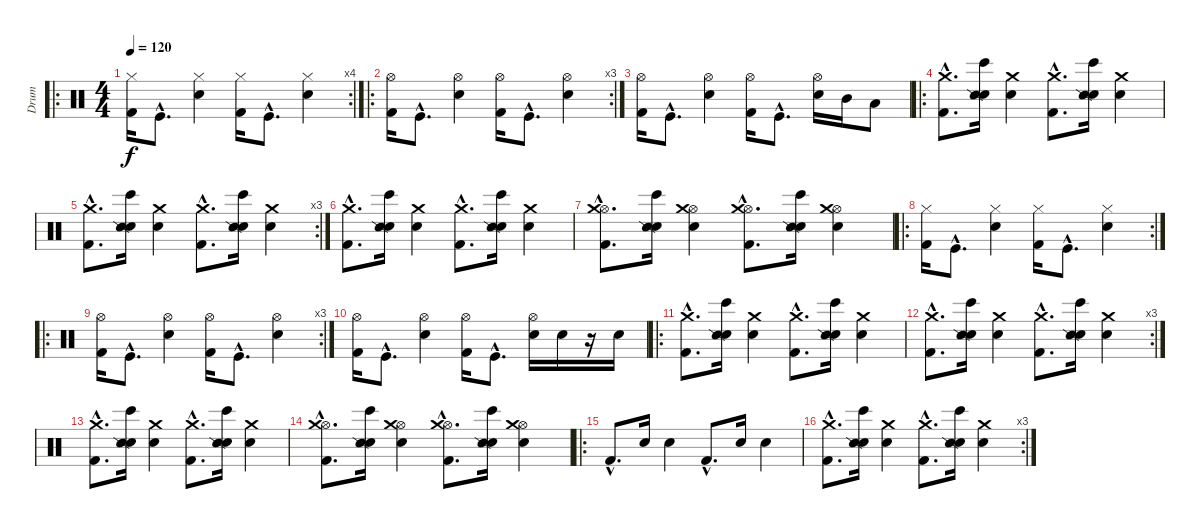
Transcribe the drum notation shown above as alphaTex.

\track ("Drum" "Drum") {instrument percussion}
\staff {score}
\articulation defaults
\ro
\rc 4
\ts (4 4)
\tempo 120
\clef neutral
\ks c
("Hi-Hat (closed)" "Kick (hit) 2").16{dy f} "Kick (hit)"{hac}.8{d} ("Hi-Hat (closed)" "Snare (hit) 2").4 ("Hi-Hat (closed)" "Kick (hit) 2").16 "Kick (hit)"{hac}.8{d} ("Hi-Hat (closed)" "Snare (hit) 2").4 |
\ro
\rc 3
("Hi-Hat (open)" "Kick (hit) 2").16 "Kick (hit)"{hac}.8{d} ("Hi-Hat (open)" "Snare (hit) 2").4 ("Hi-Hat (open)" "Kick (hit) 2").16 "Kick (hit)"{hac}.8{d} ("Hi-Hat (open)" "Snare (hit) 2").4 |
("Hi-Hat (open)" "Kick (hit) 2").16 "Kick (hit)"{hac}.8{d} ("Hi-Hat (open)" "Snare (hit) 2").4 ("Hi-Hat (open)" "Kick (hit) 2").16 "Kick (hit)"{hac}.8{d} ("Hi-Hat (open)" "Snare (hit) 2").16 "Mid Tom (hit)".16 "Low Tom (hit)".8 |
\ro
("Crash medium (hit)"{hac} "Kick (hit) 2"{hac}).8{d} ("Electric Snare (hit)" "Bongo High (hit)" "Snare (side stick) 2").16 ("Crash medium (hit)" "Electric Snare (hit)").4 ("Crash medium (hit)"{hac} "Kick (hit) 2"{hac}).8{d} ("Electric Snare (hit)" "Bongo High (hit)" "Snare (side stick) 2").16 ("Crash medium (hit)" "Electric Snare (hit)").4 |
\rc 3
("Crash medium (hit)"{hac} "Kick (hit) 2"{hac}).8{d} ("Electric Snare (hit)" "Bongo High (hit)" "Snare (side stick) 2").16 ("Crash medium (hit)" "Electric Snare (hit)").4 ("Crash medium (hit)"{hac} "Kick (hit) 2"{hac}).8{d} ("Electric Snare (hit)" "Bongo High (hit)" "Snare (side stick) 2").16 ("Crash medium (hit)" "Electric Snare (hit)").4 |
("Crash medium (hit)"{hac} "Kick (hit) 2"{hac}).8{d} ("Electric Snare (hit)" "Bongo High (hit)" "Snare (side stick) 2").16 ("Crash medium (hit)" "Electric Snare (hit)").4 ("Crash medium (hit)"{hac} "Kick (hit) 2"{hac}).8{d} ("Electric Snare (hit)" "Bongo High (hit)" "Snare (side stick) 2").16 ("Crash medium (hit)" "Electric Snare (hit)").4 |
("Hi-Hat (open)"{hac} "Crash medium (hit)"{hac} "Kick (hit) 2"{hac}).8{d} ("Electric Snare (hit)" "Bongo High (hit)" "Snare (side stick) 2").16 ("Hi-Hat (open)" "Crash medium (hit)" "Electric Snare (hit)").4 ("Hi-Hat (open)"{hac} "Crash medium (hit)"{hac} "Kick (hit) 2"{hac}).8{d} ("Electric Snare (hit)" "Bongo High (hit)" "Snare (side stick) 2").16 ("Hi-Hat (open)" "Crash medium (hit)" "Electric Snare (hit)").4 |
\ro
\rc 2
("Hi-Hat (closed)" "Kick (hit) 2").16 "Kick (hit)"{hac}.8{d} ("Hi-Hat (closed)" "Snare (hit) 2").4 ("Hi-Hat (closed)" "Kick (hit) 2").16 "Kick (hit)"{hac}.8{d} ("Hi-Hat (closed)" "Snare (hit) 2").4 |
\ro
\rc 3
("Hi-Hat (open)" "Kick (hit) 2").16 "Kick (hit)"{hac}.8{d} ("Hi-Hat (open)" "Snare (hit) 2").4 ("Hi-Hat (open)" "Kick (hit) 2").16 "Kick (hit)"{hac}.8{d} ("Hi-Hat (open)" "Snare (hit) 2").4 |
("Hi-Hat (open)" "Kick (hit) 2").16 "Kick (hit)"{hac}.8{d} ("Hi-Hat (open)" "Snare (hit) 2").4 ("Hi-Hat (open)" "Kick (hit) 2").16 "Kick (hit)"{hac}.8{d} ("Hi-Hat (open)" "Electric Snare (hit)").16 "Electric Snare (hit)".16 r.16 "Electric Snare (hit)".16 |
\ro
("Crash medium (hit)"{hac} "Kick (hit) 2"{hac}).8{d} ("Electric Snare (hit)" "Bongo High (hit)" "Snare (side stick) 2").16 ("Crash medium (hit)" "Electric Snare (hit)").4 ("Crash medium (hit)"{hac} "Kick (hit) 2"{hac}).8{d} ("Electric Snare (hit)" "Bongo High (hit)" "Snare (side stick) 2").16 ("Crash medium (hit)" "Electric Snare (hit)").4 |
\rc 3
("Crash medium (hit)"{hac} "Kick (hit) 2"{hac}).8{d} ("Electric Snare (hit)" "Bongo High (hit)" "Snare (side stick) 2").16 ("Crash medium (hit)" "Electric Snare (hit)").4 ("Crash medium (hit)"{hac} "Kick (hit) 2"{hac}).8{d} ("Electric Snare (hit)" "Bongo High (hit)" "Snare (side stick) 2").16 ("Crash medium (hit)" "Electric Snare (hit)").4 |
("Crash medium (hit)"{hac} "Kick (hit) 2"{hac}).8{d} ("Electric Snare (hit)" "Bongo High (hit)" "Snare (side stick) 2").16 ("Crash medium (hit)" "Electric Snare (hit)").4 ("Crash medium (hit)"{hac} "Kick (hit) 2"{hac}).8{d} ("Electric Snare (hit)" "Bongo High (hit)" "Snare (side stick) 2").16 ("Crash medium (hit)" "Electric Snare (hit)").4 |
("Hi-Hat (open)"{hac} "Crash medium (hit)"{hac} "Kick (hit) 2"{hac}).8{d} ("Electric Snare (hit)" "Bongo High (hit)" "Snare (side stick) 2").16 ("Hi-Hat (open)" "Crash medium (hit)" "Electric Snare (hit)").4 ("Hi-Hat (open)"{hac} "Crash medium (hit)"{hac} "Kick (hit) 2"{hac}).8{d} ("Electric Snare (hit)" "Bongo High (hit)" "Snare (side stick) 2").16 ("Hi-Hat (open)" "Crash medium (hit)" "Electric Snare (hit)").4 |
\ro "Kick (hit) 2"{hac}.8{d} "Electric Snare (hit)".16 "Electric Snare (hit)".4 "Kick (hit) 2"{hac}.8{d} "Electric Snare (hit)".16 "Electric Snare (hit)".4
|
\rc 3
("Crash medium (hit)"{hac} "Kick (hit) 2"{hac}).8{d} ("Electric Snare (hit)" "Bongo High (hit)" "Snare (side stick) 2").16 ("Crash medium (hit)" "Electric Snare (hit)").4 ("Crash medium (hit)"{hac} "Kick (hit) 2"{hac}).8{d} ("Electric Snare (hit)" "Bongo High (hit)" "Snare (side stick) 2").16 ("Crash medium (hit)" "Electric Snare (hit)").4
